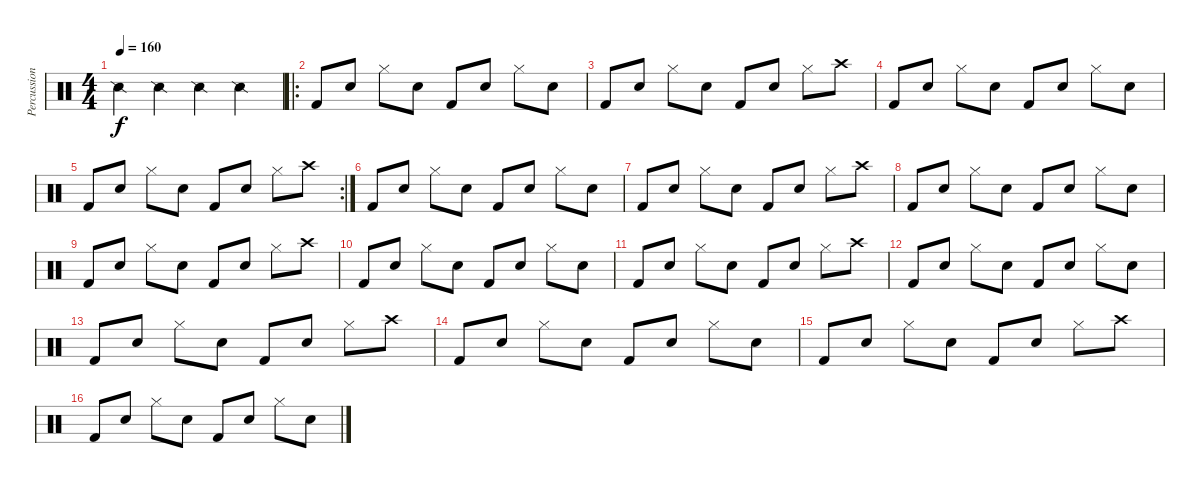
\track ("Percussion" "Percussion") {instrument percussion}
\staff {score}
\articulation defaults
\ts (4 4)
\tempo 160
\clef neutral
\ks c "Snare (side stick) 2".4{dy f} "Snare (side stick) 2".4 "Snare (side stick) 2".4 "Snare (side stick) 2".4
|
\ro "Kick (hit) 2".8 "Electric Snare (hit)".8 "Hi-Hat (closed)".8 "Electric Snare (hit)".8 "Kick (hit) 2".8 "Electric Snare (hit)".8 "Hi-Hat (closed)".8 "Electric Snare (hit)".8
|
"Kick (hit) 2".8 "Electric Snare (hit)".8 "Hi-Hat (closed)".8 "Electric Snare (hit)".8 "Kick (hit) 2".8 "Electric Snare (hit)".8 "Hi-Hat (closed)".8 "Crash high (hit)".8 |
"Kick (hit) 2".8 "Electric Snare (hit)".8 "Hi-Hat (closed)".8 "Electric Snare (hit)".8 "Kick (hit) 2".8 "Electric Snare (hit)".8 "Hi-Hat (closed)".8 "Electric Snare (hit)".8 |
\rc 2 "Kick (hit) 2".8 "Electric Snare (hit)".8 "Hi-Hat (closed)".8 "Electric Snare (hit)".8 "Kick (hit) 2".8 "Electric Snare (hit)".8 "Hi-Hat (closed)".8 "Crash high (hit)".8
|
"Kick (hit) 2".8 "Electric Snare (hit)".8 "Hi-Hat (closed)".8 "Electric Snare (hit)".8 "Kick (hit) 2".8 "Electric Snare (hit)".8 "Hi-Hat (closed)".8 "Electric Snare (hit)".8 |
"Kick (hit) 2".8 "Electric Snare (hit)".8 "Hi-Hat (closed)".8 "Electric Snare (hit)".8 "Kick (hit) 2".8 "Electric Snare (hit)".8 "Hi-Hat (closed)".8 "Crash high (hit)".8 |
"Kick (hit) 2".8 "Electric Snare (hit)".8 "Hi-Hat (closed)".8 "Electric Snare (hit)".8 "Kick (hit) 2".8 "Electric Snare (hit)".8 "Hi-Hat (closed)".8 "Electric Snare (hit)".8 |
"Kick (hit) 2".8 "Electric Snare (hit)".8 "Hi-Hat (closed)".8 "Electric Snare (hit)".8 "Kick (hit) 2".8 "Electric Snare (hit)".8 "Hi-Hat (closed)".8 "Crash high (hit)".8 |
"Kick (hit) 2".8 "Electric Snare (hit)".8 "Hi-Hat (closed)".8 "Electric Snare (hit)".8 "Kick (hit) 2".8 "Electric Snare (hit)".8 "Hi-Hat (closed)".8 "Electric Snare (hit)".8 |
"Kick (hit) 2".8 "Electric Snare (hit)".8 "Hi-Hat (closed)".8 "Electric Snare (hit)".8 "Kick (hit) 2".8 "Electric Snare (hit)".8 "Hi-Hat (closed)".8 "Crash high (hit)".8 |
"Kick (hit) 2".8 "Electric Snare (hit)".8 "Hi-Hat (closed)".8 "Electric Snare (hit)".8 "Kick (hit) 2".8 "Electric Snare (hit)".8 "Hi-Hat (closed)".8 "Electric Snare (hit)".8 |
"Kick (hit) 2".8 "Electric Snare (hit)".8 "Hi-Hat (closed)".8 "Electric Snare (hit)".8 "Kick (hit) 2".8 "Electric Snare (hit)".8 "Hi-Hat (closed)".8 "Crash high (hit)".8 |
"Kick (hit) 2".8 "Electric Snare (hit)".8 "Hi-Hat (closed)".8 "Electric Snare (hit)".8 "Kick (hit) 2".8 "Electric Snare (hit)".8 "Hi-Hat (closed)".8 "Electric Snare (hit)".8 |
"Kick (hit) 2".8 "Electric Snare (hit)".8 "Hi-Hat (closed)".8 "Electric Snare (hit)".8 "Kick (hit) 2".8 "Electric Snare (hit)".8 "Hi-Hat (closed)".8 "Crash high (hit)".8 |
"Kick (hit) 2".8 "Electric Snare (hit)".8 "Hi-Hat (closed)".8 "Electric Snare (hit)".8 "Kick (hit) 2".8 "Electric Snare (hit)".8 "Hi-Hat (closed)".8 "Electric Snare (hit)".8
